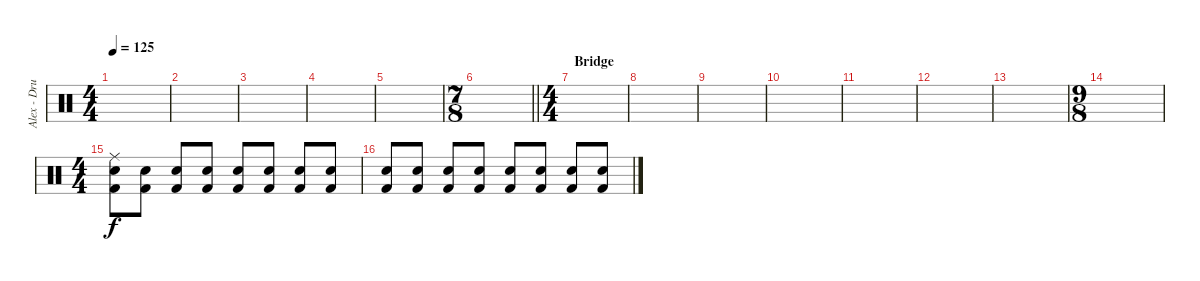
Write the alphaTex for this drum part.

\track ("Alex - Drums" "Alex - Dru") {instrument percussion}
\staff {score}
\articulation defaults
\ts (4 4)
\tempo 125
\clef neutral
\ks c
|
|
|
|
|
\ts (7 8)
\barLineRight lightlight
|
\ts (4 4)
\section ("" "Bridge")
|
|
|
|
|
|
|
\ts (9 8)
|
\ts (4 4)
("Ride (middle)" "Electric Snare (hit)" "Kick (hit) 2").8 ("Electric Snare (hit)" "Kick (hit) 2").8 ("Electric Snare (hit)" "Kick (hit) 2").8 ("Electric Snare (hit)" "Kick (hit) 2").8 ("Electric Snare (hit)" "Kick (hit) 2").8 ("Electric Snare (hit)" "Kick (hit) 2").8 ("Electric Snare (hit)" "Kick (hit) 2").8 ("Electric Snare (hit)" "Kick (hit) 2").8 |
("Electric Snare (hit)" "Kick (hit) 2").8 ("Electric Snare (hit)" "Kick (hit) 2").8 ("Electric Snare (hit)" "Kick (hit) 2").8 ("Electric Snare (hit)" "Kick (hit) 2").8 ("Electric Snare (hit)" "Kick (hit) 2").8 ("Electric Snare (hit)" "Kick (hit) 2").8 ("Electric Snare (hit)" "Kick (hit) 2").8 ("Electric Snare (hit)" "Kick (hit) 2").8
